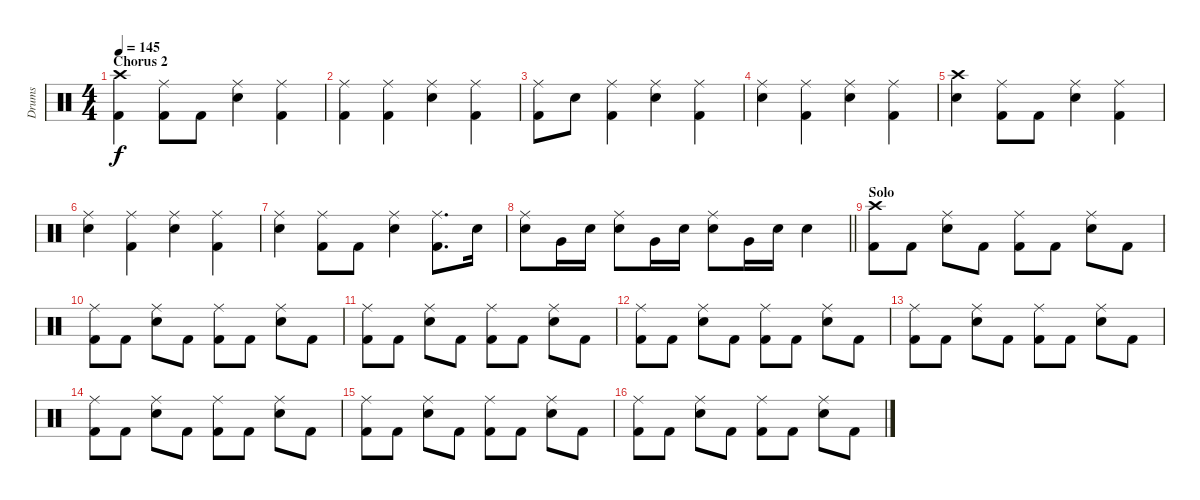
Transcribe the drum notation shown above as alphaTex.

\track ("Drums" "Drums") {instrument percussion}
\staff {score}
\articulation defaults
\ts (4 4)
\section ("" "Chorus 2")
\tempo 145
\clef neutral
\ks c
("Crash high (hit)" "Kick (hit) 2").4{dy f} ("Ride (middle)" "Kick (hit) 2").8 "Kick (hit) 2".8 ("Ride (middle)" "Snare (hit) 2").4 ("Ride (middle)" "Kick (hit) 2").4 |
("Ride (middle)" "Kick (hit) 2").4 ("Ride (middle)" "Kick (hit) 2").4 ("Ride (middle)" "Snare (hit) 2").4 ("Ride (middle)" "Kick (hit) 2").4 |
("Ride (middle)" "Kick (hit) 2").8 "Snare (hit) 2".8 ("Ride (middle)" "Kick (hit) 2").4 ("Ride (middle)" "Snare (hit) 2").4 ("Ride (middle)" "Kick (hit) 2").4 |
("Ride (middle)" "Snare (hit) 2").4 ("Ride (middle)" "Kick (hit) 2").4 ("Ride (middle)" "Snare (hit) 2").4 ("Ride (middle)" "Kick (hit) 2").4 |
("Crash high (hit)" "Snare (hit) 2").4 ("Ride (middle)" "Kick (hit) 2").8 "Kick (hit) 2".8 ("Ride (middle)" "Snare (hit) 2").4 ("Ride (middle)" "Kick (hit) 2").4 |
("Ride (middle)" "Snare (hit) 2").4 ("Ride (middle)" "Kick (hit) 2").4 ("Ride (middle)" "Snare (hit) 2").4 ("Ride (middle)" "Kick (hit) 2").4 |
("Ride (middle)" "Snare (hit) 2").4 ("Ride (middle)" "Kick (hit) 2").8 "Kick (hit) 2".8 ("Ride (middle)" "Snare (hit) 2").4 ("Ride (middle)" "Kick (hit) 2").8{d} "Snare (hit) 2".16 |
\barLineRight lightlight
("Ride (middle)" "Snare (hit) 2").8 "Very Low Tom (hit)".16 "Snare (hit) 2".16 ("Ride (middle)" "Snare (hit) 2").8 "Very Low Tom (hit)".16 "Snare (hit) 2".16 ("Ride (middle)" "Snare (hit) 2").8 "Very Low Tom (hit)".16 "Snare (hit) 2".16 "Snare (hit) 2".4 |
\section ("" "Solo")
("Crash high (hit)" "Kick (hit) 2").8 "Kick (hit) 2".8 ("Ride (middle)" "Snare (hit) 2").8 "Kick (hit) 2".8 ("Ride (middle)" "Kick (hit) 2").8 "Kick (hit) 2".8 ("Ride (middle)" "Snare (hit) 2").8 "Kick (hit) 2".8 |
("Ride (middle)" "Kick (hit) 2").8 "Kick (hit) 2".8 ("Ride (middle)" "Snare (hit) 2").8 "Kick (hit) 2".8 ("Ride (middle)" "Kick (hit) 2").8 "Kick (hit) 2".8 ("Ride (middle)" "Snare (hit) 2").8 "Kick (hit) 2".8 |
("Ride (middle)" "Kick (hit) 2").8 "Kick (hit) 2".8 ("Ride (middle)" "Snare (hit) 2").8 "Kick (hit) 2".8 ("Ride (middle)" "Kick (hit) 2").8 "Kick (hit) 2".8 ("Ride (middle)" "Snare (hit) 2").8 "Kick (hit) 2".8 |
("Ride (middle)" "Kick (hit) 2").8 "Kick (hit) 2".8 ("Ride (middle)" "Snare (hit) 2").8 "Kick (hit) 2".8 ("Ride (middle)" "Kick (hit) 2").8 "Kick (hit) 2".8 ("Ride (middle)" "Snare (hit) 2").8 "Kick (hit) 2".8 |
("Ride (middle)" "Kick (hit) 2").8 "Kick (hit) 2".8 ("Ride (middle)" "Snare (hit) 2").8 "Kick (hit) 2".8 ("Ride (middle)" "Kick (hit) 2").8 "Kick (hit) 2".8 ("Ride (middle)" "Snare (hit) 2").8 "Kick (hit) 2".8 |
("Ride (middle)" "Kick (hit) 2").8 "Kick (hit) 2".8 ("Ride (middle)" "Snare (hit) 2").8 "Kick (hit) 2".8 ("Ride (middle)" "Kick (hit) 2").8 "Kick (hit) 2".8 ("Ride (middle)" "Snare (hit) 2").8 "Kick (hit) 2".8 |
("Ride (middle)" "Kick (hit) 2").8 "Kick (hit) 2".8 ("Ride (middle)" "Snare (hit) 2").8 "Kick (hit) 2".8 ("Ride (middle)" "Kick (hit) 2").8 "Kick (hit) 2".8 ("Ride (middle)" "Snare (hit) 2").8 "Kick (hit) 2".8 |
("Ride (middle)" "Kick (hit) 2").8 "Kick (hit) 2".8 ("Ride (middle)" "Snare (hit) 2").8 "Kick (hit) 2".8 ("Ride (middle)" "Kick (hit) 2").8 "Kick (hit) 2".8 ("Ride (middle)" "Snare (hit) 2").8 "Kick (hit) 2".8
